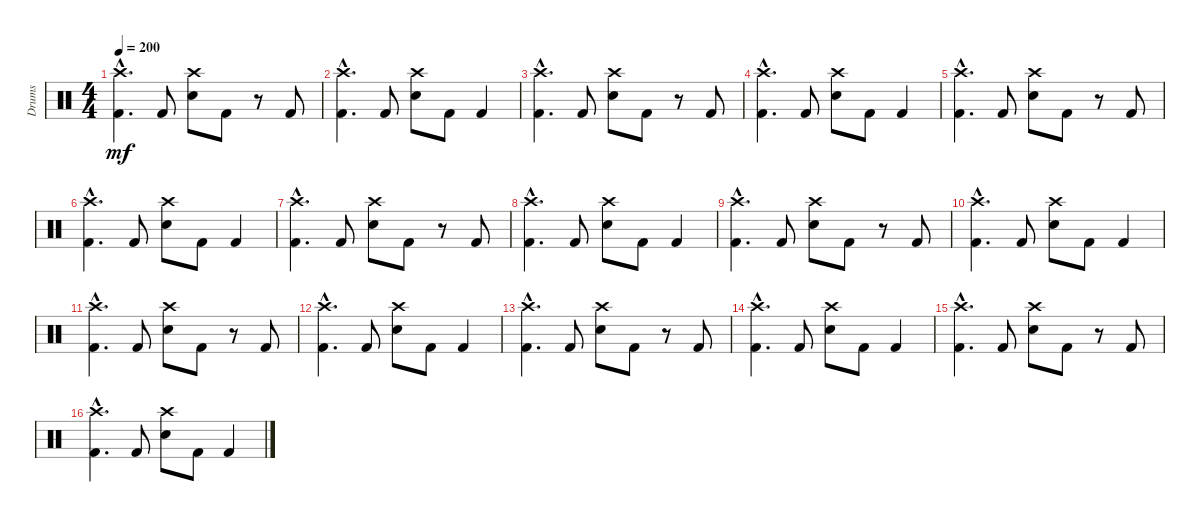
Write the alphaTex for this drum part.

\track ("Drums" "Drums") {instrument percussion}
\staff {score}
\articulation defaults
\ts (4 4)
\tempo 200
\clef neutral
\ks c
("Crash high (hit)"{hac} "Kick (hit) 2"{hac}).4{d dy mf} "Kick (hit) 2".8 ("Crash high (hit)" "Electric Snare (hit)").8 "Kick (hit) 2".8 r.8 "Kick (hit) 2".8 |
("Crash high (hit)"{hac} "Kick (hit) 2"{hac}).4{d} "Kick (hit) 2".8 ("Crash high (hit)" "Electric Snare (hit)").8 "Kick (hit) 2".8 "Kick (hit) 2".4 |
("Crash high (hit)"{hac} "Kick (hit) 2"{hac}).4{d} "Kick (hit) 2".8 ("Crash high (hit)" "Electric Snare (hit)").8 "Kick (hit) 2".8 r.8 "Kick (hit) 2".8 |
("Crash high (hit)"{hac} "Kick (hit) 2"{hac}).4{d} "Kick (hit) 2".8 ("Crash high (hit)" "Electric Snare (hit)").8 "Kick (hit) 2".8 "Kick (hit) 2".4 |
("Crash high (hit)"{hac} "Kick (hit) 2"{hac}).4{d} "Kick (hit) 2".8 ("Crash high (hit)" "Electric Snare (hit)").8 "Kick (hit) 2".8 r.8 "Kick (hit) 2".8 |
("Crash high (hit)"{hac} "Kick (hit) 2"{hac}).4{d} "Kick (hit) 2".8 ("Crash high (hit)" "Electric Snare (hit)").8 "Kick (hit) 2".8 "Kick (hit) 2".4 |
("Crash high (hit)"{hac} "Kick (hit) 2"{hac}).4{d} "Kick (hit) 2".8 ("Crash high (hit)" "Electric Snare (hit)").8 "Kick (hit) 2".8 r.8 "Kick (hit) 2".8 |
("Crash high (hit)"{hac} "Kick (hit) 2"{hac}).4{d} "Kick (hit) 2".8 ("Crash high (hit)" "Electric Snare (hit)").8 "Kick (hit) 2".8 "Kick (hit) 2".4 |
("Crash high (hit)"{hac} "Kick (hit) 2"{hac}).4{d} "Kick (hit) 2".8 ("Crash high (hit)" "Electric Snare (hit)").8 "Kick (hit) 2".8 r.8 "Kick (hit) 2".8 |
("Crash high (hit)"{hac} "Kick (hit) 2"{hac}).4{d} "Kick (hit) 2".8 ("Crash high (hit)" "Electric Snare (hit)").8 "Kick (hit) 2".8 "Kick (hit) 2".4 |
("Crash high (hit)"{hac} "Kick (hit) 2"{hac}).4{d} "Kick (hit) 2".8 ("Crash high (hit)" "Electric Snare (hit)").8 "Kick (hit) 2".8 r.8 "Kick (hit) 2".8 |
("Crash high (hit)"{hac} "Kick (hit) 2"{hac}).4{d} "Kick (hit) 2".8 ("Crash high (hit)" "Electric Snare (hit)").8 "Kick (hit) 2".8 "Kick (hit) 2".4 |
("Crash high (hit)"{hac} "Kick (hit) 2"{hac}).4{d} "Kick (hit) 2".8 ("Crash high (hit)" "Electric Snare (hit)").8 "Kick (hit) 2".8 r.8 "Kick (hit) 2".8 |
("Crash high (hit)"{hac} "Kick (hit) 2"{hac}).4{d} "Kick (hit) 2".8 ("Crash high (hit)" "Electric Snare (hit)").8 "Kick (hit) 2".8 "Kick (hit) 2".4 |
("Crash high (hit)"{hac} "Kick (hit) 2"{hac}).4{d} "Kick (hit) 2".8 ("Crash high (hit)" "Electric Snare (hit)").8 "Kick (hit) 2".8 r.8 "Kick (hit) 2".8 |
("Crash high (hit)"{hac} "Kick (hit) 2"{hac}).4{d} "Kick (hit) 2".8 ("Crash high (hit)" "Electric Snare (hit)").8 "Kick (hit) 2".8 "Kick (hit) 2".4
